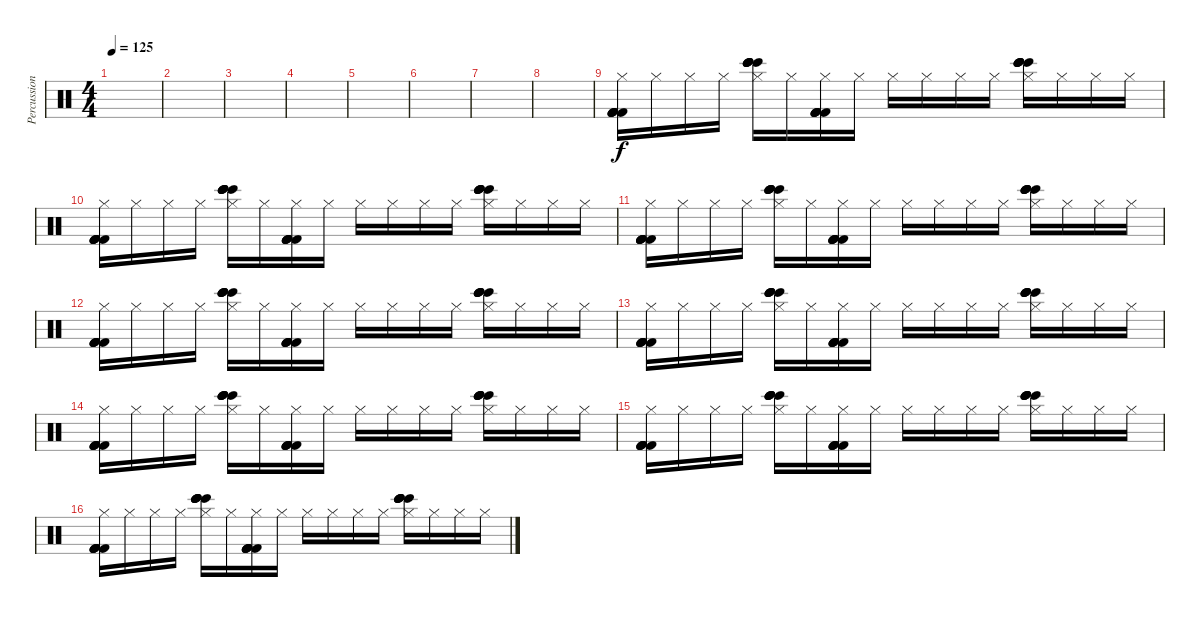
\track ("Percussion" "Percussion") {instrument percussion}
\staff {score}
\articulation defaults
\ts (4 4)
\tempo 125
\clef neutral
\ks c
|
|
|
|
|
|
|
|
("Hi-Hat (closed)" "Kick (hit) 2" "Kick (hit) 2" "Kick (hit) 2" "Kick (hit) 2" "Kick (hit) 2").16 "Hi-Hat (closed)".16 "Hi-Hat (closed)".16 "Hi-Hat (closed)".16 ("Hi-Hat (closed)" "Bongo High (hit)" "Bongo High (hit)" "Bongo High (hit)" "Bongo High (hit)" "Bongo High (hit)").16 "Hi-Hat (closed)".16 ("Hi-Hat (closed)" "Kick (hit) 2" "Kick (hit) 2" "Kick (hit) 2" "Kick (hit) 2" "Kick (hit) 2").16 "Hi-Hat (closed)".16 "Hi-Hat (closed)".16 "Hi-Hat (closed)".16 "Hi-Hat (closed)".16 "Hi-Hat (closed)".16 ("Hi-Hat (closed)" "Bongo High (hit)" "Bongo High (hit)" "Bongo High (hit)" "Bongo High (hit)" "Bongo High (hit)").16 "Hi-Hat (closed)".16 "Hi-Hat (closed)".16 "Hi-Hat (closed)".16 |
("Hi-Hat (closed)" "Kick (hit) 2" "Kick (hit) 2" "Kick (hit) 2" "Kick (hit) 2" "Kick (hit) 2").16 "Hi-Hat (closed)".16 "Hi-Hat (closed)".16 "Hi-Hat (closed)".16 ("Hi-Hat (closed)" "Bongo High (hit)" "Bongo High (hit)" "Bongo High (hit)" "Bongo High (hit)" "Bongo High (hit)").16 "Hi-Hat (closed)".16 ("Hi-Hat (closed)" "Kick (hit) 2" "Kick (hit) 2" "Kick (hit) 2" "Kick (hit) 2" "Kick (hit) 2").16 "Hi-Hat (closed)".16 "Hi-Hat (closed)".16 "Hi-Hat (closed)".16 "Hi-Hat (closed)".16 "Hi-Hat (closed)".16 ("Hi-Hat (closed)" "Bongo High (hit)" "Bongo High (hit)" "Bongo High (hit)" "Bongo High (hit)" "Bongo High (hit)").16 "Hi-Hat (closed)".16 "Hi-Hat (closed)".16 "Hi-Hat (closed)".16 |
("Hi-Hat (closed)" "Kick (hit) 2" "Kick (hit) 2" "Kick (hit) 2" "Kick (hit) 2" "Kick (hit) 2").16 "Hi-Hat (closed)".16 "Hi-Hat (closed)".16 "Hi-Hat (closed)".16 ("Hi-Hat (closed)" "Bongo High (hit)" "Bongo High (hit)" "Bongo High (hit)" "Bongo High (hit)" "Bongo High (hit)").16 "Hi-Hat (closed)".16 ("Hi-Hat (closed)" "Kick (hit) 2" "Kick (hit) 2" "Kick (hit) 2" "Kick (hit) 2" "Kick (hit) 2").16 "Hi-Hat (closed)".16 "Hi-Hat (closed)".16 "Hi-Hat (closed)".16 "Hi-Hat (closed)".16 "Hi-Hat (closed)".16 ("Hi-Hat (closed)" "Bongo High (hit)" "Bongo High (hit)" "Bongo High (hit)" "Bongo High (hit)" "Bongo High (hit)").16 "Hi-Hat (closed)".16 "Hi-Hat (closed)".16 "Hi-Hat (closed)".16 |
("Hi-Hat (closed)" "Kick (hit) 2" "Kick (hit) 2" "Kick (hit) 2" "Kick (hit) 2" "Kick (hit) 2").16 "Hi-Hat (closed)".16 "Hi-Hat (closed)".16 "Hi-Hat (closed)".16 ("Hi-Hat (closed)" "Bongo High (hit)" "Bongo High (hit)" "Bongo High (hit)" "Bongo High (hit)" "Bongo High (hit)").16 "Hi-Hat (closed)".16 ("Hi-Hat (closed)" "Kick (hit) 2" "Kick (hit) 2" "Kick (hit) 2" "Kick (hit) 2" "Kick (hit) 2").16 "Hi-Hat (closed)".16 "Hi-Hat (closed)".16 "Hi-Hat (closed)".16 "Hi-Hat (closed)".16 "Hi-Hat (closed)".16 ("Hi-Hat (closed)" "Bongo High (hit)" "Bongo High (hit)" "Bongo High (hit)" "Bongo High (hit)" "Bongo High (hit)").16 "Hi-Hat (closed)".16 "Hi-Hat (closed)".16 "Hi-Hat (closed)".16 |
("Hi-Hat (closed)" "Kick (hit) 2" "Kick (hit) 2" "Kick (hit) 2" "Kick (hit) 2" "Kick (hit) 2").16 "Hi-Hat (closed)".16 "Hi-Hat (closed)".16 "Hi-Hat (closed)".16 ("Hi-Hat (closed)" "Bongo High (hit)" "Bongo High (hit)" "Bongo High (hit)" "Bongo High (hit)" "Bongo High (hit)").16 "Hi-Hat (closed)".16 ("Hi-Hat (closed)" "Kick (hit) 2" "Kick (hit) 2" "Kick (hit) 2" "Kick (hit) 2" "Kick (hit) 2").16 "Hi-Hat (closed)".16 "Hi-Hat (closed)".16 "Hi-Hat (closed)".16 "Hi-Hat (closed)".16 "Hi-Hat (closed)".16 ("Hi-Hat (closed)" "Bongo High (hit)" "Bongo High (hit)" "Bongo High (hit)" "Bongo High (hit)" "Bongo High (hit)").16 "Hi-Hat (closed)".16 "Hi-Hat (closed)".16 "Hi-Hat (closed)".16 |
("Hi-Hat (closed)" "Kick (hit) 2" "Kick (hit) 2" "Kick (hit) 2" "Kick (hit) 2" "Kick (hit) 2").16 "Hi-Hat (closed)".16 "Hi-Hat (closed)".16 "Hi-Hat (closed)".16 ("Hi-Hat (closed)" "Bongo High (hit)" "Bongo High (hit)" "Bongo High (hit)" "Bongo High (hit)" "Bongo High (hit)").16 "Hi-Hat (closed)".16 ("Hi-Hat (closed)" "Kick (hit) 2" "Kick (hit) 2" "Kick (hit) 2" "Kick (hit) 2" "Kick (hit) 2").16 "Hi-Hat (closed)".16 "Hi-Hat (closed)".16 "Hi-Hat (closed)".16 "Hi-Hat (closed)".16 "Hi-Hat (closed)".16 ("Hi-Hat (closed)" "Bongo High (hit)" "Bongo High (hit)" "Bongo High (hit)" "Bongo High (hit)" "Bongo High (hit)").16 "Hi-Hat (closed)".16 "Hi-Hat (closed)".16 "Hi-Hat (closed)".16 |
("Hi-Hat (closed)" "Kick (hit) 2" "Kick (hit) 2" "Kick (hit) 2" "Kick (hit) 2" "Kick (hit) 2").16 "Hi-Hat (closed)".16 "Hi-Hat (closed)".16 "Hi-Hat (closed)".16 ("Hi-Hat (closed)" "Bongo High (hit)" "Bongo High (hit)" "Bongo High (hit)" "Bongo High (hit)" "Bongo High (hit)").16 "Hi-Hat (closed)".16 ("Hi-Hat (closed)" "Kick (hit) 2" "Kick (hit) 2" "Kick (hit) 2" "Kick (hit) 2" "Kick (hit) 2").16 "Hi-Hat (closed)".16 "Hi-Hat (closed)".16 "Hi-Hat (closed)".16 "Hi-Hat (closed)".16 "Hi-Hat (closed)".16 ("Hi-Hat (closed)" "Bongo High (hit)" "Bongo High (hit)" "Bongo High (hit)" "Bongo High (hit)" "Bongo High (hit)").16 "Hi-Hat (closed)".16 "Hi-Hat (closed)".16 "Hi-Hat (closed)".16 |
("Hi-Hat (closed)" "Kick (hit) 2" "Kick (hit) 2" "Kick (hit) 2" "Kick (hit) 2" "Kick (hit) 2").16 "Hi-Hat (closed)".16 "Hi-Hat (closed)".16 "Hi-Hat (closed)".16 ("Hi-Hat (closed)" "Bongo High (hit)" "Bongo High (hit)" "Bongo High (hit)" "Bongo High (hit)" "Bongo High (hit)").16 "Hi-Hat (closed)".16 ("Hi-Hat (closed)" "Kick (hit) 2" "Kick (hit) 2" "Kick (hit) 2" "Kick (hit) 2" "Kick (hit) 2").16 "Hi-Hat (closed)".16 "Hi-Hat (closed)".16 "Hi-Hat (closed)".16 "Hi-Hat (closed)".16 "Hi-Hat (closed)".16 ("Hi-Hat (closed)" "Bongo High (hit)" "Bongo High (hit)" "Bongo High (hit)" "Bongo High (hit)" "Bongo High (hit)").16 "Hi-Hat (closed)".16 "Hi-Hat (closed)".16 "Hi-Hat (closed)".16
